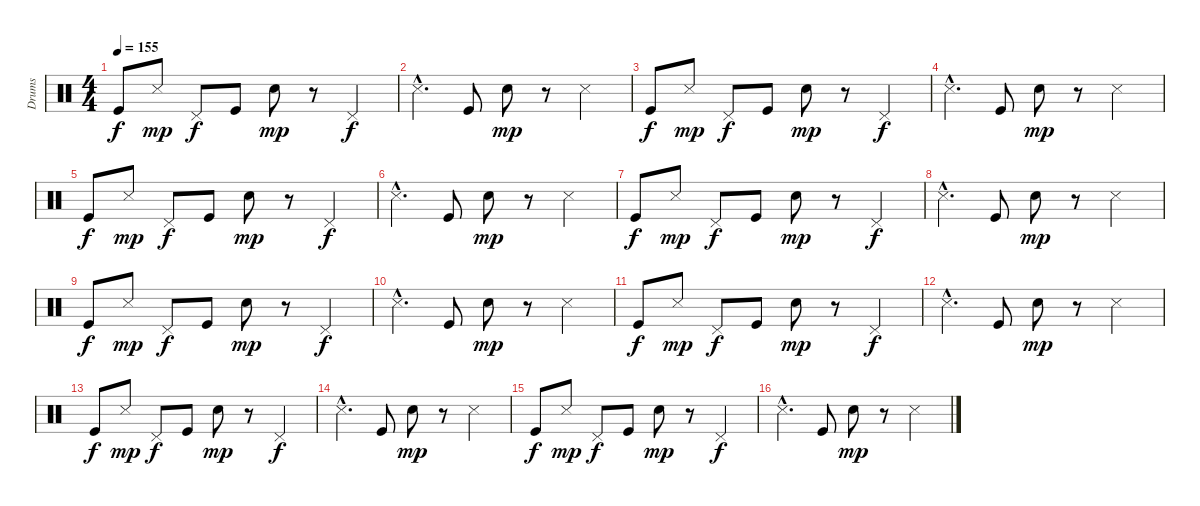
\track ("Drums" "Drums") {instrument percussion}
\staff {score}
\articulation defaults
\ts (4 4)
\tempo 155
\clef neutral
\ks c "Kick (hit)".8{dy f} "Snare (side stick) 3".8{dy mp} "Pedal Hi-Hat (hit)".8{dy f} "Kick (hit)".8 "Electric Snare (hit)".8{dy mp}
r.8 "Pedal Hi-Hat (hit)".4{dy f} |
"Snare (side stick) 3"{hac}.4{d} "Kick (hit)".8 "Electric Snare (hit)".8{dy mp} r.8 "Snare (side stick) 3".4 |
"Kick (hit)".8{dy f} "Snare (side stick) 3".8{dy mp} "Pedal Hi-Hat (hit)".8{dy f} "Kick (hit)".8 "Electric Snare (hit)".8{dy mp} r.8 "Pedal Hi-Hat (hit)".4{dy f} |
"Snare (side stick) 3"{hac}.4{d} "Kick (hit)".8 "Electric Snare (hit)".8{dy mp} r.8 "Snare (side stick) 3".4 |
"Kick (hit)".8{dy f} "Snare (side stick) 3".8{dy mp} "Pedal Hi-Hat (hit)".8{dy f} "Kick (hit)".8 "Electric Snare (hit)".8{dy mp} r.8 "Pedal Hi-Hat (hit)".4{dy f} |
"Snare (side stick) 3"{hac}.4{d} "Kick (hit)".8 "Electric Snare (hit)".8{dy mp} r.8 "Snare (side stick) 3".4 |
"Kick (hit)".8{dy f} "Snare (side stick) 3".8{dy mp} "Pedal Hi-Hat (hit)".8{dy f} "Kick (hit)".8 "Electric Snare (hit)".8{dy mp} r.8 "Pedal Hi-Hat (hit)".4{dy f} |
"Snare (side stick) 3"{hac}.4{d} "Kick (hit)".8 "Electric Snare (hit)".8{dy mp} r.8 "Snare (side stick) 3".4 |
"Kick (hit)".8{dy f} "Snare (side stick) 3".8{dy mp} "Pedal Hi-Hat (hit)".8{dy f} "Kick (hit)".8 "Electric Snare (hit)".8{dy mp} r.8 "Pedal Hi-Hat (hit)".4{dy f} |
"Snare (side stick) 3"{hac}.4{d} "Kick (hit)".8 "Electric Snare (hit)".8{dy mp} r.8 "Snare (side stick) 3".4 |
"Kick (hit)".8{dy f} "Snare (side stick) 3".8{dy mp} "Pedal Hi-Hat (hit)".8{dy f} "Kick (hit)".8 "Electric Snare (hit)".8{dy mp} r.8 "Pedal Hi-Hat (hit)".4{dy f} |
"Snare (side stick) 3"{hac}.4{d} "Kick (hit)".8 "Electric Snare (hit)".8{dy mp} r.8 "Snare (side stick) 3".4 |
"Kick (hit)".8{dy f} "Snare (side stick) 3".8{dy mp} "Pedal Hi-Hat (hit)".8{dy f} "Kick (hit)".8 "Electric Snare (hit)".8{dy mp} r.8 "Pedal Hi-Hat (hit)".4{dy f} |
"Snare (side stick) 3"{hac}.4{d} "Kick (hit)".8 "Electric Snare (hit)".8{dy mp} r.8 "Snare (side stick) 3".4 |
"Kick (hit)".8{dy f} "Snare (side stick) 3".8{dy mp} "Pedal Hi-Hat (hit)".8{dy f} "Kick (hit)".8 "Electric Snare (hit)".8{dy mp} r.8 "Pedal Hi-Hat (hit)".4{dy f} |
"Snare (side stick) 3"{hac}.4{d} "Kick (hit)".8 "Electric Snare (hit)".8{dy mp} r.8 "Snare (side stick) 3".4
